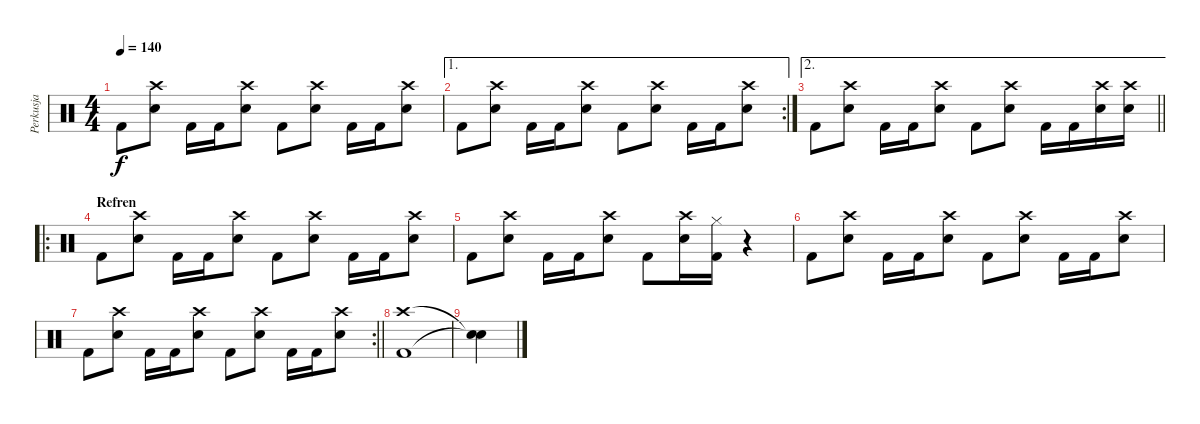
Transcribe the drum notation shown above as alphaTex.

\track ("Perkusja" "Perkusja") {instrument percussion}
\staff {score}
\articulation defaults
\ts (4 4)
\tempo 140
\clef neutral
\ks c "Kick (hit) 2".8{dy f}
("Crash high (hit)" "Snare (hit) 2").8 "Kick (hit) 2".16 "Kick (hit) 2".16 ("Crash high (hit)" "Snare (hit) 2").8 "Kick (hit) 2".8 ("Crash high (hit)" "Snare (hit) 2").8 "Kick (hit) 2".16 "Kick (hit) 2".16 ("Crash high (hit)" "Snare (hit) 2").8 |
\ae 1
\rc 2 "Kick (hit) 2".8
("Crash high (hit)" "Snare (hit) 2").8 "Kick (hit) 2".16 "Kick (hit) 2".16 ("Crash high (hit)" "Snare (hit) 2").8 "Kick (hit) 2".8 ("Crash high (hit)" "Snare (hit) 2").8 "Kick (hit) 2".16 "Kick (hit) 2".16 ("Crash high (hit)" "Snare (hit) 2").8 |
\ae 2
\barLineRight lightlight "Kick (hit) 2".8
("Crash high (hit)" "Snare (hit) 2").8 "Kick (hit) 2".16 "Kick (hit) 2".16 ("Crash high (hit)" "Snare (hit) 2").8 "Kick (hit) 2".8 ("Crash high (hit)" "Snare (hit) 2").8 "Kick (hit) 2".16 "Kick (hit) 2".16 ("Crash high (hit)" "Snare (hit) 2").16 ("Crash high (hit)" "Snare (hit) 2").16 |
\ro
\section ("" "Refren")
"Kick (hit) 2".8 ("Crash high (hit)" "Snare (hit) 2").8 "Kick (hit) 2".16 "Kick (hit) 2".16 ("Crash high (hit)" "Snare (hit) 2").8 "Kick (hit) 2".8 ("Crash high (hit)" "Snare (hit) 2").8 "Kick (hit) 2".16 "Kick (hit) 2".16 ("Crash high (hit)" "Snare (hit) 2").8 |
"Kick (hit) 2".8 ("Crash high (hit)" "Snare (hit) 2").8 "Kick (hit) 2".16 "Kick (hit) 2".16 ("Crash high (hit)" "Snare (hit) 2").8 "Kick (hit) 2".8 ("Crash high (hit)" "Snare (hit) 2").16 ("Hi-Hat (closed)" "Kick (hit) 2").16 r.4 |
"Kick (hit) 2".8 ("Crash high (hit)" "Snare (hit) 2").8 "Kick (hit) 2".16 "Kick (hit) 2".16 ("Crash high (hit)" "Snare (hit) 2").8 "Kick (hit) 2".8 ("Crash high (hit)" "Snare (hit) 2").8 "Kick (hit) 2".16 "Kick (hit) 2".16 ("Crash high (hit)" "Snare (hit) 2").8 |
\rc 2
\barLineRight lightlight "Kick (hit) 2".8
("Crash high (hit)" "Snare (hit) 2").8 "Kick (hit) 2".16 "Kick (hit) 2".16 ("Crash high (hit)" "Snare (hit) 2").8 "Kick (hit) 2".8 ("Crash high (hit)" "Snare (hit) 2").8 "Kick (hit) 2".16 "Kick (hit) 2".16 ("Crash high (hit)" "Snare (hit) 2").8 |
("Crash high (hit)" "Kick (hit) 2").1 |
("Snare (hit)"{t} "Snare (hit)"{t}).4
